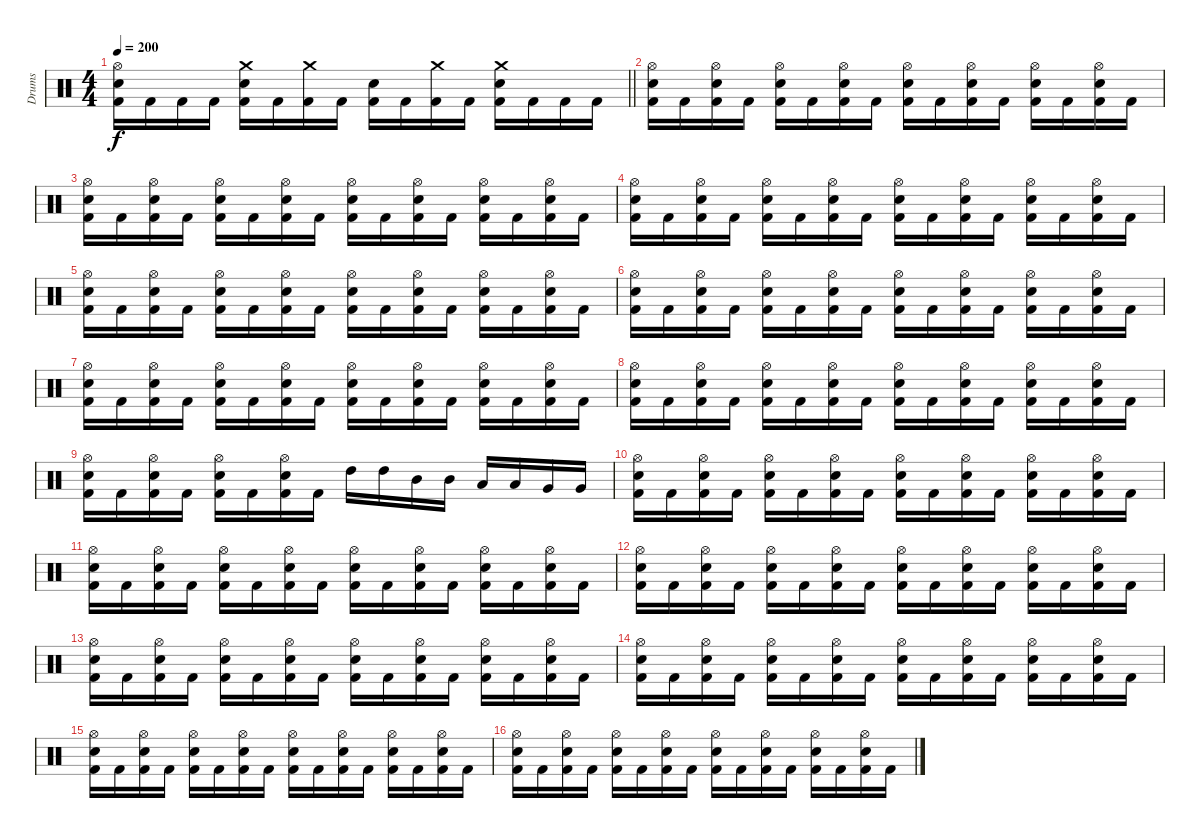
\track ("Drums" "Drums") {instrument percussion}
\staff {score}
\articulation defaults
\ts (4 4)
\tempo 200
\clef neutral
\barLineRight lightlight
\ks c
("Hi-Hat (open)" "Snare (hit) 2" "Kick (hit) 2").16{dy f} "Kick (hit) 2".16 "Kick (hit) 2".16 "Kick (hit) 2".16 ("Crash medium (hit)" "Snare (hit) 2" "Kick (hit) 2").16 "Kick (hit) 2".16 ("Crash medium (hit)" "Kick (hit) 2").16 "Kick (hit) 2".16 ("Snare (hit) 2" "Kick (hit) 2").16 "Kick (hit) 2".16 ("Crash medium (hit)" "Kick (hit) 2").16 "Kick (hit) 2".16 ("Crash medium (hit)" "Snare (hit) 2" "Kick (hit) 2").16 "Kick (hit) 2".16 "Kick (hit) 2".16 "Kick (hit) 2".16 |
("Hi-Hat (open)" "Snare (hit) 2" "Kick (hit) 2").16 "Kick (hit) 2".16 ("Hi-Hat (open)" "Snare (hit) 2" "Kick (hit) 2").16 "Kick (hit) 2".16 ("Hi-Hat (open)" "Snare (hit) 2" "Kick (hit) 2").16 "Kick (hit) 2".16 ("Hi-Hat (open)" "Snare (hit) 2" "Kick (hit) 2").16 "Kick (hit) 2".16 ("Hi-Hat (open)" "Snare (hit) 2" "Kick (hit) 2").16 "Kick (hit) 2".16 ("Hi-Hat (open)" "Snare (hit) 2" "Kick (hit) 2").16 "Kick (hit) 2".16 ("Hi-Hat (open)" "Snare (hit) 2" "Kick (hit) 2").16 "Kick (hit) 2".16 ("Hi-Hat (open)" "Snare (hit) 2" "Kick (hit) 2").16 "Kick (hit) 2".16 |
("Hi-Hat (open)" "Snare (hit) 2" "Kick (hit) 2").16 "Kick (hit) 2".16 ("Hi-Hat (open)" "Snare (hit) 2" "Kick (hit) 2").16 "Kick (hit) 2".16 ("Hi-Hat (open)" "Snare (hit) 2" "Kick (hit) 2").16 "Kick (hit) 2".16 ("Hi-Hat (open)" "Snare (hit) 2" "Kick (hit) 2").16 "Kick (hit) 2".16 ("Hi-Hat (open)" "Snare (hit) 2" "Kick (hit) 2").16 "Kick (hit) 2".16 ("Hi-Hat (open)" "Snare (hit) 2" "Kick (hit) 2").16 "Kick (hit) 2".16 ("Hi-Hat (open)" "Snare (hit) 2" "Kick (hit) 2").16 "Kick (hit) 2".16 ("Hi-Hat (open)" "Snare (hit) 2" "Kick (hit) 2").16 "Kick (hit) 2".16 |
("Hi-Hat (open)" "Snare (hit) 2" "Kick (hit) 2").16 "Kick (hit) 2".16 ("Hi-Hat (open)" "Snare (hit) 2" "Kick (hit) 2").16 "Kick (hit) 2".16 ("Hi-Hat (open)" "Snare (hit) 2" "Kick (hit) 2").16 "Kick (hit) 2".16 ("Hi-Hat (open)" "Snare (hit) 2" "Kick (hit) 2").16 "Kick (hit) 2".16 ("Hi-Hat (open)" "Snare (hit) 2" "Kick (hit) 2").16 "Kick (hit) 2".16 ("Hi-Hat (open)" "Snare (hit) 2" "Kick (hit) 2").16 "Kick (hit) 2".16 ("Hi-Hat (open)" "Snare (hit) 2" "Kick (hit) 2").16 "Kick (hit) 2".16 ("Hi-Hat (open)" "Snare (hit) 2" "Kick (hit) 2").16 "Kick (hit) 2".16 |
("Hi-Hat (open)" "Snare (hit) 2" "Kick (hit) 2").16 "Kick (hit) 2".16 ("Hi-Hat (open)" "Snare (hit) 2" "Kick (hit) 2").16 "Kick (hit) 2".16 ("Hi-Hat (open)" "Snare (hit) 2" "Kick (hit) 2").16 "Kick (hit) 2".16 ("Hi-Hat (open)" "Snare (hit) 2" "Kick (hit) 2").16 "Kick (hit) 2".16 ("Hi-Hat (open)" "Snare (hit) 2" "Kick (hit) 2").16 "Kick (hit) 2".16 ("Hi-Hat (open)" "Snare (hit) 2" "Kick (hit) 2").16 "Kick (hit) 2".16 ("Hi-Hat (open)" "Snare (hit) 2" "Kick (hit) 2").16 "Kick (hit) 2".16 ("Hi-Hat (open)" "Snare (hit) 2" "Kick (hit) 2").16 "Kick (hit) 2".16 |
("Hi-Hat (open)" "Snare (hit) 2" "Kick (hit) 2").16 "Kick (hit) 2".16 ("Hi-Hat (open)" "Snare (hit) 2" "Kick (hit) 2").16 "Kick (hit) 2".16 ("Hi-Hat (open)" "Snare (hit) 2" "Kick (hit) 2").16 "Kick (hit) 2".16 ("Hi-Hat (open)" "Snare (hit) 2" "Kick (hit) 2").16 "Kick (hit) 2".16 ("Hi-Hat (open)" "Snare (hit) 2" "Kick (hit) 2").16 "Kick (hit) 2".16 ("Hi-Hat (open)" "Snare (hit) 2" "Kick (hit) 2").16 "Kick (hit) 2".16 ("Hi-Hat (open)" "Snare (hit) 2" "Kick (hit) 2").16 "Kick (hit) 2".16 ("Hi-Hat (open)" "Snare (hit) 2" "Kick (hit) 2").16 "Kick (hit) 2".16 |
("Hi-Hat (open)" "Snare (hit) 2" "Kick (hit) 2").16 "Kick (hit) 2".16 ("Hi-Hat (open)" "Snare (hit) 2" "Kick (hit) 2").16 "Kick (hit) 2".16 ("Hi-Hat (open)" "Snare (hit) 2" "Kick (hit) 2").16 "Kick (hit) 2".16 ("Hi-Hat (open)" "Snare (hit) 2" "Kick (hit) 2").16 "Kick (hit) 2".16 ("Hi-Hat (open)" "Snare (hit) 2" "Kick (hit) 2").16 "Kick (hit) 2".16 ("Hi-Hat (open)" "Snare (hit) 2" "Kick (hit) 2").16 "Kick (hit) 2".16 ("Hi-Hat (open)" "Snare (hit) 2" "Kick (hit) 2").16 "Kick (hit) 2".16 ("Hi-Hat (open)" "Snare (hit) 2" "Kick (hit) 2").16 "Kick (hit) 2".16 |
("Hi-Hat (open)" "Snare (hit) 2" "Kick (hit) 2").16 "Kick (hit) 2".16 ("Hi-Hat (open)" "Snare (hit) 2" "Kick (hit) 2").16 "Kick (hit) 2".16 ("Hi-Hat (open)" "Snare (hit) 2" "Kick (hit) 2").16 "Kick (hit) 2".16 ("Hi-Hat (open)" "Snare (hit) 2" "Kick (hit) 2").16 "Kick (hit) 2".16 ("Hi-Hat (open)" "Snare (hit) 2" "Kick (hit) 2").16 "Kick (hit) 2".16 ("Hi-Hat (open)" "Snare (hit) 2" "Kick (hit) 2").16 "Kick (hit) 2".16 ("Hi-Hat (open)" "Snare (hit) 2" "Kick (hit) 2").16 "Kick (hit) 2".16 ("Hi-Hat (open)" "Snare (hit) 2" "Kick (hit) 2").16 "Kick (hit) 2".16 |
("Hi-Hat (open)" "Snare (hit) 2" "Kick (hit) 2").16 "Kick (hit) 2".16 ("Hi-Hat (open)" "Snare (hit) 2" "Kick (hit) 2").16 "Kick (hit) 2".16 ("Hi-Hat (open)" "Snare (hit) 2" "Kick (hit) 2").16 "Kick (hit) 2".16 ("Hi-Hat (open)" "Snare (hit) 2" "Kick (hit) 2").16 "Kick (hit) 2".16 "High Tom (hit)".16 "High Tom (hit)".16 "Mid Tom (hit)".16 "Mid Tom (hit)".16 "Low Tom (hit)".16 "Low Tom (hit)".16 "Very Low Tom (hit)".16 "Very Low Tom (hit)".16 |
("Hi-Hat (open)" "Snare (hit) 2" "Kick (hit) 2").16 "Kick (hit) 2".16 ("Hi-Hat (open)" "Snare (hit) 2" "Kick (hit) 2").16 "Kick (hit) 2".16 ("Hi-Hat (open)" "Snare (hit) 2" "Kick (hit) 2").16 "Kick (hit) 2".16 ("Hi-Hat (open)" "Snare (hit) 2" "Kick (hit) 2").16 "Kick (hit) 2".16 ("Hi-Hat (open)" "Snare (hit) 2" "Kick (hit) 2").16 "Kick (hit) 2".16 ("Hi-Hat (open)" "Snare (hit) 2" "Kick (hit) 2").16 "Kick (hit) 2".16 ("Hi-Hat (open)" "Snare (hit) 2" "Kick (hit) 2").16 "Kick (hit) 2".16 ("Hi-Hat (open)" "Snare (hit) 2" "Kick (hit) 2").16 "Kick (hit) 2".16 |
("Hi-Hat (open)" "Snare (hit) 2" "Kick (hit) 2").16 "Kick (hit) 2".16 ("Hi-Hat (open)" "Snare (hit) 2" "Kick (hit) 2").16 "Kick (hit) 2".16 ("Hi-Hat (open)" "Snare (hit) 2" "Kick (hit) 2").16 "Kick (hit) 2".16 ("Hi-Hat (open)" "Snare (hit) 2" "Kick (hit) 2").16 "Kick (hit) 2".16 ("Hi-Hat (open)" "Snare (hit) 2" "Kick (hit) 2").16 "Kick (hit) 2".16 ("Hi-Hat (open)" "Snare (hit) 2" "Kick (hit) 2").16 "Kick (hit) 2".16 ("Hi-Hat (open)" "Snare (hit) 2" "Kick (hit) 2").16 "Kick (hit) 2".16 ("Hi-Hat (open)" "Snare (hit) 2" "Kick (hit) 2").16 "Kick (hit) 2".16 |
("Hi-Hat (open)" "Snare (hit) 2" "Kick (hit) 2").16 "Kick (hit) 2".16 ("Hi-Hat (open)" "Snare (hit) 2" "Kick (hit) 2").16 "Kick (hit) 2".16 ("Hi-Hat (open)" "Snare (hit) 2" "Kick (hit) 2").16 "Kick (hit) 2".16 ("Hi-Hat (open)" "Snare (hit) 2" "Kick (hit) 2").16 "Kick (hit) 2".16 ("Hi-Hat (open)" "Snare (hit) 2" "Kick (hit) 2").16 "Kick (hit) 2".16 ("Hi-Hat (open)" "Snare (hit) 2" "Kick (hit) 2").16 "Kick (hit) 2".16 ("Hi-Hat (open)" "Snare (hit) 2" "Kick (hit) 2").16 "Kick (hit) 2".16 ("Hi-Hat (open)" "Snare (hit) 2" "Kick (hit) 2").16 "Kick (hit) 2".16 |
("Hi-Hat (open)" "Snare (hit) 2" "Kick (hit) 2").16 "Kick (hit) 2".16 ("Hi-Hat (open)" "Snare (hit) 2" "Kick (hit) 2").16 "Kick (hit) 2".16 ("Hi-Hat (open)" "Snare (hit) 2" "Kick (hit) 2").16 "Kick (hit) 2".16 ("Hi-Hat (open)" "Snare (hit) 2" "Kick (hit) 2").16 "Kick (hit) 2".16 ("Hi-Hat (open)" "Snare (hit) 2" "Kick (hit) 2").16 "Kick (hit) 2".16 ("Hi-Hat (open)" "Snare (hit) 2" "Kick (hit) 2").16 "Kick (hit) 2".16 ("Hi-Hat (open)" "Snare (hit) 2" "Kick (hit) 2").16 "Kick (hit) 2".16 ("Hi-Hat (open)" "Snare (hit) 2" "Kick (hit) 2").16 "Kick (hit) 2".16 |
("Hi-Hat (open)" "Snare (hit) 2" "Kick (hit) 2").16 "Kick (hit) 2".16 ("Hi-Hat (open)" "Snare (hit) 2" "Kick (hit) 2").16 "Kick (hit) 2".16 ("Hi-Hat (open)" "Snare (hit) 2" "Kick (hit) 2").16 "Kick (hit) 2".16 ("Hi-Hat (open)" "Snare (hit) 2" "Kick (hit) 2").16 "Kick (hit) 2".16 ("Hi-Hat (open)" "Snare (hit) 2" "Kick (hit) 2").16 "Kick (hit) 2".16 ("Hi-Hat (open)" "Snare (hit) 2" "Kick (hit) 2").16 "Kick (hit) 2".16 ("Hi-Hat (open)" "Snare (hit) 2" "Kick (hit) 2").16 "Kick (hit) 2".16 ("Hi-Hat (open)" "Snare (hit) 2" "Kick (hit) 2").16 "Kick (hit) 2".16 |
("Hi-Hat (open)" "Snare (hit) 2" "Kick (hit) 2").16 "Kick (hit) 2".16 ("Hi-Hat (open)" "Snare (hit) 2" "Kick (hit) 2").16 "Kick (hit) 2".16 ("Hi-Hat (open)" "Snare (hit) 2" "Kick (hit) 2").16 "Kick (hit) 2".16 ("Hi-Hat (open)" "Snare (hit) 2" "Kick (hit) 2").16 "Kick (hit) 2".16 ("Hi-Hat (open)" "Snare (hit) 2" "Kick (hit) 2").16 "Kick (hit) 2".16 ("Hi-Hat (open)" "Snare (hit) 2" "Kick (hit) 2").16 "Kick (hit) 2".16 ("Hi-Hat (open)" "Snare (hit) 2" "Kick (hit) 2").16 "Kick (hit) 2".16 ("Hi-Hat (open)" "Snare (hit) 2" "Kick (hit) 2").16 "Kick (hit) 2".16 |
("Hi-Hat (open)" "Snare (hit) 2" "Kick (hit) 2").16 "Kick (hit) 2".16 ("Hi-Hat (open)" "Snare (hit) 2" "Kick (hit) 2").16 "Kick (hit) 2".16 ("Hi-Hat (open)" "Snare (hit) 2" "Kick (hit) 2").16 "Kick (hit) 2".16 ("Hi-Hat (open)" "Snare (hit) 2" "Kick (hit) 2").16 "Kick (hit) 2".16 ("Hi-Hat (open)" "Snare (hit) 2" "Kick (hit) 2").16 "Kick (hit) 2".16 ("Hi-Hat (open)" "Snare (hit) 2" "Kick (hit) 2").16 "Kick (hit) 2".16 ("Hi-Hat (open)" "Snare (hit) 2" "Kick (hit) 2").16 "Kick (hit) 2".16 ("Hi-Hat (open)" "Snare (hit) 2" "Kick (hit) 2").16 "Kick (hit) 2".16
